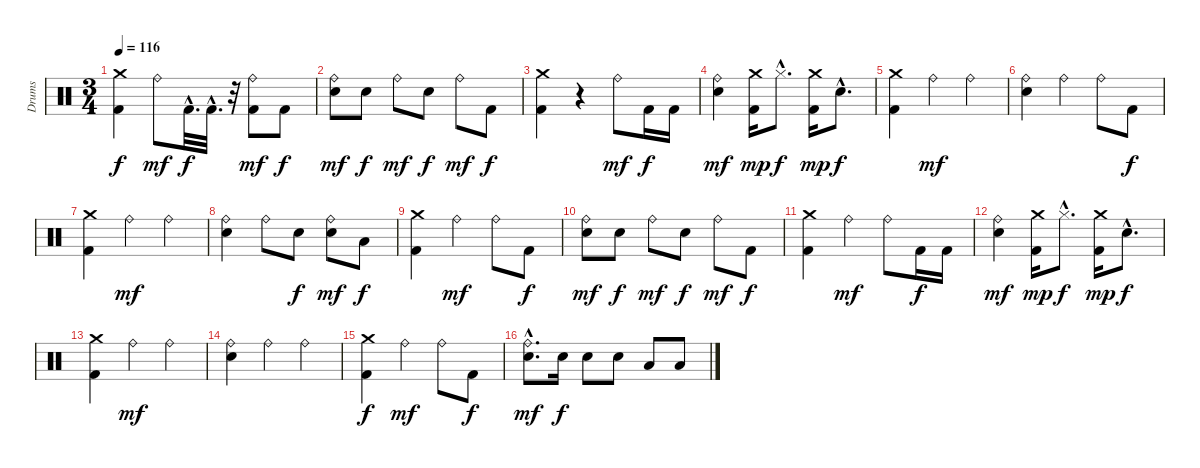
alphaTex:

\track ("Drums" "Drums") {instrument percussion}
\staff {score}
\articulation defaults
\ts (3 4)
\tempo 116
\clef neutral
\ks c
("Kick (hit) 2" "Crash medium (hit)").4{dy f} "Ride (bell)".8{dy mf} "Kick (hit) 2"{hac}.32{d dy f} "Kick (hit) 2"{hac}.32{d} r.32 ("Kick (hit) 2" "Ride (bell)").8{dy mf} "Kick (hit) 2".8{dy f} |
("Electric Snare (hit)" "Ride (bell)").8{dy mf} "Electric Snare (hit)".8{dy f} "Ride (bell)".8{dy mf} "Electric Snare (hit)".8{dy f} "Ride (bell)".8{dy mf} "Kick (hit) 2".8{dy f} |
("Kick (hit) 2" "Crash medium (hit)").4 r.4 "Ride (bell)".8{dy mf} "Kick (hit) 2".16{dy f} "Kick (hit) 2".16 |
("Electric Snare (hit)" "Ride (bell)").4{dy mf} ("Kick (hit) 2" "Crash medium (hit)").16{dy mp} "Hi-Hat (closed)"{hac x}.8{d dy f} ("Kick (hit) 2" "Crash medium (hit)").16{dy mp} "Snare (hit)"{hac x}.8{d dy f} |
("Kick (hit) 2" "Crash medium (hit)").4 "Ride (bell)".4{dy mf} "Ride (bell)".4 |
("Electric Snare (hit)" "Ride (bell)").4 "Ride (bell)".4 "Ride (bell)".8 "Kick (hit) 2".8{dy f} |
("Kick (hit) 2" "Crash medium (hit)").4 "Ride (bell)".4{dy mf} "Ride (bell)".4 |
("Electric Snare (hit)" "Ride (bell)").4 "Ride (bell)".8 "Electric Snare (hit)".8{dy f} ("Electric Snare (hit)" "Ride (bell)").8{dy mf} "Low Tom (hit)".8{dy f} |
("Kick (hit) 2" "Crash medium (hit)").4 "Ride (bell)".4{dy mf} "Ride (bell)".8 "Kick (hit) 2".8{dy f} |
("Electric Snare (hit)" "Ride (bell)").8{dy mf} "Electric Snare (hit)".8{dy f} "Ride (bell)".8{dy mf} "Electric Snare (hit)".8{dy f} "Ride (bell)".8{dy mf} "Kick (hit) 2".8{dy f} |
("Kick (hit) 2" "Crash medium (hit)").4 "Ride (bell)".4{dy mf} "Ride (bell)".8 "Kick (hit) 2".16{dy f} "Kick (hit) 2".16 |
("Electric Snare (hit)" "Ride (bell)").4{dy mf} ("Kick (hit) 2" "Crash medium (hit)").16{dy mp} "Hi-Hat (closed)"{hac x}.8{d dy f} ("Kick (hit) 2" "Crash medium (hit)").16{dy mp} "Snare (hit)"{hac x}.8{d dy f} |
("Kick (hit) 2" "Crash medium (hit)").4 "Ride (bell)".4{dy mf} "Ride (bell)".4 |
("Electric Snare (hit)" "Ride (bell)").4 "Ride (bell)".4 "Ride (bell)".4 |
("Kick (hit) 2" "Crash medium (hit)").4{dy f} "Ride (bell)".4{dy mf} "Ride (bell)".8 "Kick (hit) 2".8{dy f} |
("Electric Snare (hit)"{hac} "Ride (bell)"{hac}).8{d dy mf} "Electric Snare (hit)".16{dy f} "Electric Snare (hit)".8 "Electric Snare (hit)".8 "Low Tom (hit)".8 "Low Tom (hit)".8
